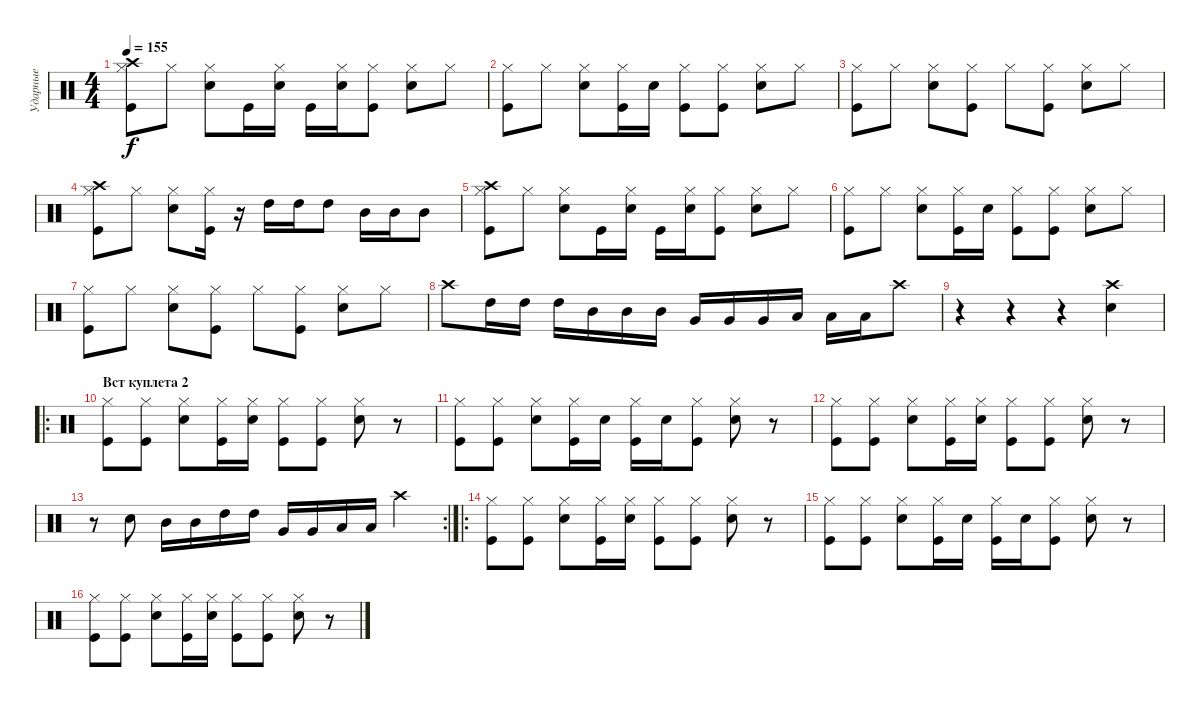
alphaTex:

\track ("Ударные" "Ударные") {instrument percussion}
\staff {score}
\articulation defaults
\ts (4 4)
\tempo 155
\clef neutral
\ks c
("Crash high (hit)" "Hi-Hat (closed)" "Kick (hit)").8{dy f} "Hi-Hat (closed)".8 ("Hi-Hat (closed)" "Snare (hit) 2").8 "Kick (hit)".16 ("Hi-Hat (closed)" "Snare (hit) 2").16 "Kick (hit)".16 ("Hi-Hat (closed)" "Snare (hit) 2").16 ("Hi-Hat (closed)" "Kick (hit)").8 ("Hi-Hat (closed)" "Snare (hit) 2").8 "Hi-Hat (closed)".8 |
("Hi-Hat (closed)" "Kick (hit)").8 "Hi-Hat (closed)".8 ("Hi-Hat (closed)" "Snare (hit) 2").8 ("Hi-Hat (closed)" "Kick (hit)").16 "Snare (hit) 2".16 ("Hi-Hat (closed)" "Kick (hit)").8 ("Hi-Hat (closed)" "Kick (hit)").8 ("Hi-Hat (closed)" "Snare (hit) 2").8 "Hi-Hat (closed)".8 |
("Hi-Hat (closed)" "Kick (hit)").8 "Hi-Hat (closed)".8 ("Hi-Hat (closed)" "Snare (hit) 2").8 ("Hi-Hat (closed)" "Kick (hit)").8 "Hi-Hat (closed)".8 ("Hi-Hat (closed)" "Kick (hit)").8 ("Hi-Hat (closed)" "Snare (hit) 2").8 "Hi-Hat (closed)".8 |
("Crash high (hit)" "Hi-Hat (closed)" "Kick (hit)").8 "Hi-Hat (closed)".8 ("Hi-Hat (closed)" "Snare (hit) 2").8 ("Hi-Hat (closed)" "Kick (hit)").16 r.16 "High Tom (hit)".16 "High Tom (hit)".16 "High Tom (hit)".8 "Mid Tom (hit)".16 "Mid Tom (hit)".16 "Mid Tom (hit)".8 |
("Crash high (hit)" "Hi-Hat (closed)" "Kick (hit)").8 "Hi-Hat (closed)".8 ("Hi-Hat (closed)" "Snare (hit) 2").8 "Kick (hit)".16 ("Hi-Hat (closed)" "Snare (hit) 2").16 "Kick (hit)".16 ("Hi-Hat (closed)" "Snare (hit) 2").16 ("Hi-Hat (closed)" "Kick (hit)").8 ("Hi-Hat (closed)" "Snare (hit) 2").8 "Hi-Hat (closed)".8 |
("Hi-Hat (closed)" "Kick (hit)").8 "Hi-Hat (closed)".8 ("Hi-Hat (closed)" "Snare (hit) 2").8 ("Hi-Hat (closed)" "Kick (hit)").16 "Snare (hit) 2".16 ("Hi-Hat (closed)" "Kick (hit)").8 ("Hi-Hat (closed)" "Kick (hit)").8 ("Hi-Hat (closed)" "Snare (hit) 2").8 "Hi-Hat (closed)".8 |
("Hi-Hat (closed)" "Kick (hit)").8 "Hi-Hat (closed)".8 ("Hi-Hat (closed)" "Snare (hit) 2").8 ("Hi-Hat (closed)" "Kick (hit)").8 "Hi-Hat (closed)".8 ("Hi-Hat (closed)" "Kick (hit)").8 ("Hi-Hat (closed)" "Snare (hit) 2").8 "Hi-Hat (closed)".8 |
"Crash high (hit)".8 "High Tom (hit)".16 "High Tom (hit)".16 "High Tom (hit)".16 "Mid Tom (hit)".16 "Mid Tom (hit)".16 "Mid Tom (hit)".16 "Very Low Tom (hit)".16 "Very Low Tom (hit)".16 "Very Low Tom (hit)".16 "Low Floor Tom (hit)".16 "Low Floor Tom (hit)".16 "Low Floor Tom (hit)".16 "Crash high (hit)".8 |
r.4 r.4 r.4 ("Crash high (hit)" "Snare (hit) 2").4 |
\ro
\section ("" "Вст куплета 2")
("Hi-Hat (closed)" "Kick (hit)").8 ("Hi-Hat (closed)" "Kick (hit)").8 ("Hi-Hat (closed)" "Snare (hit) 2").8 ("Hi-Hat (closed)" "Kick (hit)").16 ("Hi-Hat (closed)" "Snare (hit) 2").16 ("Hi-Hat (closed)" "Kick (hit)").8 ("Hi-Hat (closed)" "Kick (hit)").8 ("Hi-Hat (closed)" "Snare (hit) 2").8 r.8 |
("Hi-Hat (closed)" "Kick (hit)").8 ("Hi-Hat (closed)" "Kick (hit)").8 ("Hi-Hat (closed)" "Snare (hit) 2").8 ("Hi-Hat (closed)" "Kick (hit)").16 "Snare (hit) 2".16 ("Hi-Hat (closed)" "Kick (hit)").16 "Snare (hit) 2".16 ("Hi-Hat (closed)" "Kick (hit)").8 ("Hi-Hat (closed)" "Snare (hit) 2").8 r.8 |
("Hi-Hat (closed)" "Kick (hit)").8 ("Hi-Hat (closed)" "Kick (hit)").8 ("Hi-Hat (closed)" "Snare (hit) 2").8 ("Hi-Hat (closed)" "Kick (hit)").16 ("Hi-Hat (closed)" "Snare (hit) 2").16 ("Hi-Hat (closed)" "Kick (hit)").8 ("Hi-Hat (closed)" "Kick (hit)").8 ("Hi-Hat (closed)" "Snare (hit) 2").8 r.8 |
\rc 2
r.8 "Snare (hit) 2".8 "Mid Tom (hit)".16 "Mid Tom (hit)".16 "High Tom (hit)".16 "High Tom (hit)".16 "Very Low Tom (hit)".16 "Very Low Tom (hit)".16 "Low Floor Tom (hit)".16 "Low Floor Tom (hit)".16 "Crash high (hit)".4 |
\ro
("Hi-Hat (closed)" "Kick (hit)").8 ("Hi-Hat (closed)" "Kick (hit)").8 ("Hi-Hat (closed)" "Snare (hit) 2").8 ("Hi-Hat (closed)" "Kick (hit)").16 ("Hi-Hat (closed)" "Snare (hit) 2").16 ("Hi-Hat (closed)" "Kick (hit)").8 ("Hi-Hat (closed)" "Kick (hit)").8 ("Hi-Hat (closed)" "Snare (hit) 2").8 r.8 |
("Hi-Hat (closed)" "Kick (hit)").8 ("Hi-Hat (closed)" "Kick (hit)").8 ("Hi-Hat (closed)" "Snare (hit) 2").8 ("Hi-Hat (closed)" "Kick (hit)").16 "Snare (hit) 2".16 ("Hi-Hat (closed)" "Kick (hit)").16 "Snare (hit) 2".16 ("Hi-Hat (closed)" "Kick (hit)").8 ("Hi-Hat (closed)" "Snare (hit) 2").8 r.8 |
("Hi-Hat (closed)" "Kick (hit)").8 ("Hi-Hat (closed)" "Kick (hit)").8 ("Hi-Hat (closed)" "Snare (hit) 2").8 ("Hi-Hat (closed)" "Kick (hit)").16 ("Hi-Hat (closed)" "Snare (hit) 2").16 ("Hi-Hat (closed)" "Kick (hit)").8 ("Hi-Hat (closed)" "Kick (hit)").8 ("Hi-Hat (closed)" "Snare (hit) 2").8 r.8
